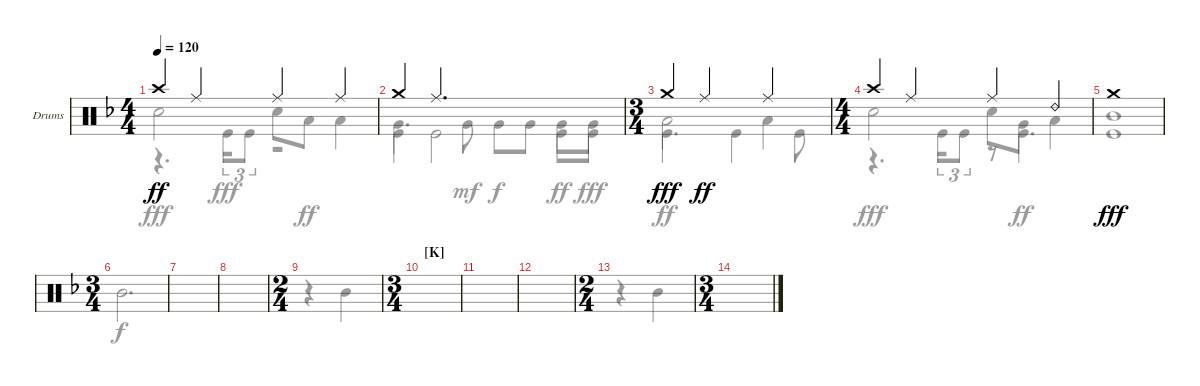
\defaultSystemsLayout 4
\bracketExtendMode groupsimilarinstruments
\firstSystemTrackNameOrientation horizontal
\otherSystemsTrackNameOrientation horizontal
\track ("Drumkit" "Drums") {instrument percussion}
\staff {score}
\articulation defaults
\voice
\ts (4 4)
\tempo 120
\clef neutral
\ks f "Crash high (hit)".4{dy ff} "Ride (middle)".4 "Ride (middle)".4 "Ride (middle)".4
|
"Crash medium (hit)".4 "Ride (middle)".2{d} |
\ts (3 4)
"Crash medium (hit)".4{dy fff} "Ride (middle)".4{dy ff} "Ride (middle)".4 |
\ts (4 4)
"Crash high (hit)".4 "Ride (middle)".4 "Ride (middle)".4 "Ride (bell) 2".4 |
"Crash medium (hit)".1{dy fff} |
\ts (3 4)
|
|
|
\ts (2 4)
|
\ts (3 4)
\section ("K" "")
|
|
|
\ts (2 4)
|
\ts (3 4)
|
|
\voice
\clef neutral
\ottava regular
\simile none
\ks f "Snare (hit) 2".2{dy fff} "Snare (hit) 2".8 "Low Tom (hit)".8{dy ff} "Low Tom (hit)".4
|
"Very Low Tom (hit)".4{d} "Very Low Tom (hit)".8{dy mf} "Very Low Tom (hit)".8{dy f} "Very Low Tom (hit)".8 "Very Low Tom (hit)".8{dy ff} "Very Low Tom (hit)".8{dy fff} |
"Low Tom (hit)".2{dy ff} "Low Tom (hit)".4 |
"Snare (hit) 2".2{dy fff} "Snare (hit) 2".8 "Very Low Tom (hit)".8{dy ff} "Low Tom (hit)".4 |
"Mid Tom (hit)".1 |
"Mid Tom (hit)".2{d dy f} |
|
|
r.4 "Mid Tom (hit)".4 |
|
|
|
r.4 "Mid Tom (hit)".4 |
|
|
\voice
\clef neutral
\ottava regular
\simile none
\ks f
r.4{d dy fff} "Kick (hit)".16{tu (3 2)} "Kick (hit)".8{tu (3 2)} r.2 |
"Kick (hit)".4 "Kick (hit)".2 "Kick (hit)".8{dy ff} "Kick (hit)".8{dy fff} |
"Kick (hit)".4{d} "Kick (hit)".4 "Kick (hit)".8 |
r.4{d} "Kick (hit)".16{tu (3 2)} "Kick (hit)".8{tu (3 2)} r.8 "Kick (hit)".4{d} |
"Kick (hit)".1 |
|
|
|
|
|
|
|
|
|
|
